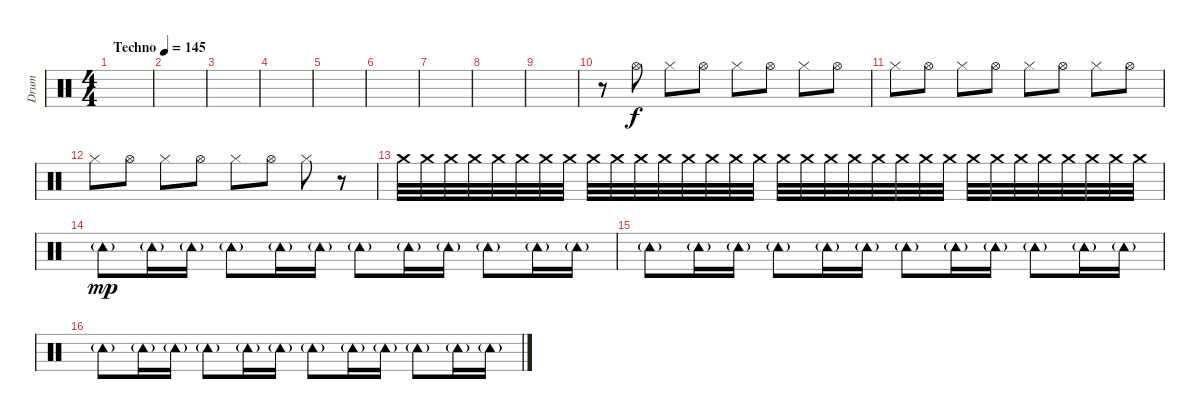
\track ("Drum" "Drum") {instrument percussion bank 4}
\staff {score}
\articulation defaults
\ts (4 4)
\tempo (145 "Techno")
\clef neutral
\ks c
|
|
|
|
|
|
|
|
|
r.8{volume 8} "Hi-Hat (open)".8 "Hi-Hat (closed)".8 "Hi-Hat (open)".8 "Hi-Hat (closed)".8 "Hi-Hat (open)".8 "Hi-Hat (closed)".8 "Hi-Hat (open)".8 |
"Hi-Hat (closed)".8 "Hi-Hat (open)".8 "Hi-Hat (closed)".8 "Hi-Hat (open)".8 "Hi-Hat (closed)".8 "Hi-Hat (open)".8 "Hi-Hat (closed)".8 "Hi-Hat (open)".8 |
"Hi-Hat (closed)".8 "Hi-Hat (open)".8 "Hi-Hat (closed)".8 "Hi-Hat (open)".8 "Hi-Hat (closed)".8 "Hi-Hat (open)".8 "Hi-Hat (closed)".8 r.8{volume 0} |
"Crash medium (hit)".32{volume 13} "Crash medium (hit)".32 "Crash medium (hit)".32 "Crash medium (hit)".32 "Crash medium (hit)".32 "Crash medium (hit)".32 "Crash medium (hit)".32 "Crash medium (hit)".32 "Crash medium (hit)".32 "Crash medium (hit)".32 "Crash medium (hit)".32 "Crash medium (hit)".32 "Crash medium (hit)".32 "Crash medium (hit)".32 "Crash medium (hit)".32 "Crash medium (hit)".32 "Crash medium (hit)".32 "Crash medium (hit)".32 "Crash medium (hit)".32 "Crash medium (hit)".32 "Crash medium (hit)".32 "Crash medium (hit)".32 "Crash medium (hit)".32 "Crash medium (hit)".32 "Crash medium (hit)".32 "Crash medium (hit)".32 "Crash medium (hit)".32 "Crash medium (hit)".32 "Crash medium (hit)".32 "Crash medium (hit)".32 "Crash medium (hit)".32 "Crash medium (hit)".32 |
"Tambourine (hit)"{g}.8{dy mp} "Tambourine (hit)"{g}.16 "Tambourine (hit)"{g}.16 "Tambourine (hit)"{g}.8 "Tambourine (hit)"{g}.16 "Tambourine (hit)"{g}.16 "Tambourine (hit)"{g}.8 "Tambourine (hit)"{g}.16 "Tambourine (hit)"{g}.16 "Tambourine (hit)"{g}.8 "Tambourine (hit)"{g}.16 "Tambourine (hit)"{g}.16 |
"Tambourine (hit)"{g}.8 "Tambourine (hit)"{g}.16 "Tambourine (hit)"{g}.16 "Tambourine (hit)"{g}.8 "Tambourine (hit)"{g}.16 "Tambourine (hit)"{g}.16 "Tambourine (hit)"{g}.8 "Tambourine (hit)"{g}.16 "Tambourine (hit)"{g}.16 "Tambourine (hit)"{g}.8 "Tambourine (hit)"{g}.16 "Tambourine (hit)"{g}.16 |
"Tambourine (hit)"{g}.8 "Tambourine (hit)"{g}.16 "Tambourine (hit)"{g}.16 "Tambourine (hit)"{g}.8 "Tambourine (hit)"{g}.16 "Tambourine (hit)"{g}.16 "Tambourine (hit)"{g}.8 "Tambourine (hit)"{g}.16 "Tambourine (hit)"{g}.16 "Tambourine (hit)"{g}.8 "Tambourine (hit)"{g}.16 "Tambourine (hit)"{g}.16
